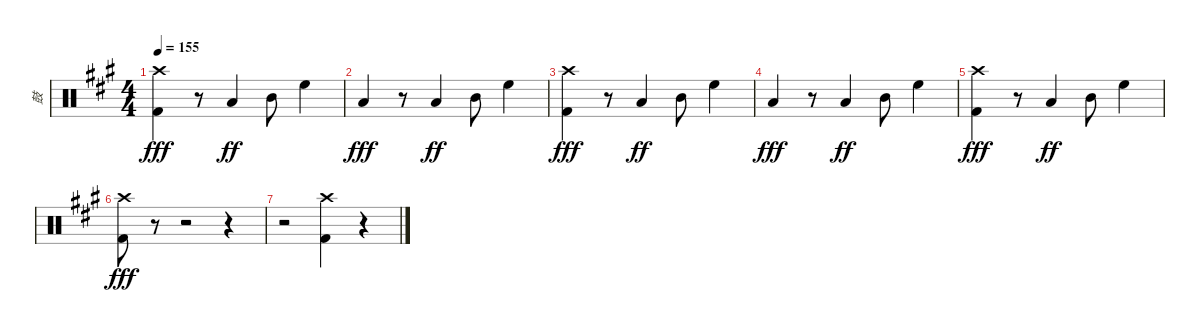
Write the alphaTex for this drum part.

\track ("鼓" "鼓") {instrument percussion}
\staff {score}
\articulation defaults
\ts (4 4)
\tempo 155
\clef neutral
\ks a
("Kick (hit) 2" "Crash high (hit)").4{dy fff} r.8 "Low Tom (hit)".4{dy ff} "Mid Tom (hit)".8 "High Floor Tom (hit)".4 |
"Low Floor Tom (hit)".4{dy fff} r.8 "Low Tom (hit)".4{dy ff} "Mid Tom (hit)".8 "High Floor Tom (hit)".4 |
("Kick (hit) 2" "Crash high (hit)").4{dy fff} r.8 "Low Tom (hit)".4{dy ff} "Mid Tom (hit)".8 "High Floor Tom (hit)".4 |
"Low Floor Tom (hit)".4{dy fff} r.8 "Low Tom (hit)".4{dy ff} "Mid Tom (hit)".8 "High Floor Tom (hit)".4 |
("Kick (hit) 2" "Crash high (hit)").4{dy fff} r.8 "Low Tom (hit)".4{dy ff} "Mid Tom (hit)".8 "High Floor Tom (hit)".4 |
("Crash high (hit)" "Kick (hit) 2").8{dy fff} r.8 r.2 r.4 |
r.2 ("Crash high (hit)" "Kick (hit) 2").4 r.4
